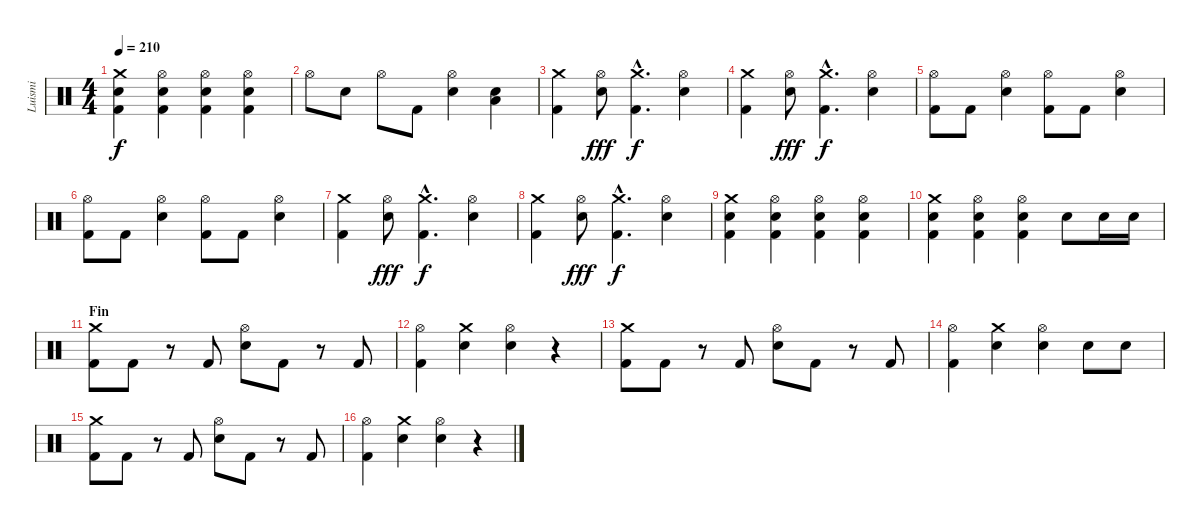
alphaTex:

\track ("Luismi" "Luismi") {instrument percussion}
\staff {score}
\articulation defaults
\ts (4 4)
\tempo 210
\clef neutral
\ks c
("Crash medium (hit)" "Snare (hit) 2" "Kick (hit) 2").4{dy f} ("Hi-Hat (open)" "Snare (hit) 2" "Kick (hit) 2").4 ("Hi-Hat (open)" "Snare (hit) 2" "Kick (hit) 2").4 ("Hi-Hat (open)" "Snare (hit) 2" "Kick (hit) 2").4 |
"Hi-Hat (open)".8 "Snare (hit) 2".8 "Hi-Hat (open)".8 "Kick (hit) 2".8 ("Hi-Hat (open)" "Snare (hit) 2").4 ("Snare (hit) 2" "Low Floor Tom (hit)").4 |
("Crash medium (hit)" "Kick (hit) 2").4 ("Hi-Hat (open)" "Snare (hit) 2").8{dy fff} ("Crash medium (hit)"{hac} "Kick (hit) 2"{hac}).4{d dy f} ("Hi-Hat (open)" "Snare (hit) 2").4 |
("Crash medium (hit)" "Kick (hit) 2").4 ("Hi-Hat (open)" "Snare (hit) 2").8{dy fff} ("Crash medium (hit)"{hac} "Kick (hit) 2"{hac}).4{d dy f} ("Hi-Hat (open)" "Snare (hit) 2").4 |
("Hi-Hat (open)" "Kick (hit) 2").8 "Kick (hit) 2".8 ("Hi-Hat (open)" "Snare (hit) 2").4 ("Hi-Hat (open)" "Kick (hit) 2").8 "Kick (hit) 2".8 ("Hi-Hat (open)" "Snare (hit) 2").4 |
("Hi-Hat (open)" "Kick (hit) 2").8 "Kick (hit) 2".8 ("Hi-Hat (open)" "Snare (hit) 2").4 ("Hi-Hat (open)" "Kick (hit) 2").8 "Kick (hit) 2".8 ("Hi-Hat (open)" "Snare (hit) 2").4 |
("Crash medium (hit)" "Kick (hit) 2").4 ("Hi-Hat (open)" "Snare (hit) 2").8{dy fff} ("Crash medium (hit)"{hac} "Kick (hit) 2"{hac}).4{d dy f} ("Hi-Hat (open)" "Snare (hit) 2").4 |
("Crash medium (hit)" "Kick (hit) 2").4 ("Hi-Hat (open)" "Snare (hit) 2").8{dy fff} ("Crash medium (hit)"{hac} "Kick (hit) 2"{hac}).4{d dy f} ("Hi-Hat (open)" "Snare (hit) 2").4 |
("Crash medium (hit)" "Snare (hit) 2" "Kick (hit) 2").4 ("Hi-Hat (open)" "Snare (hit) 2" "Kick (hit) 2").4 ("Hi-Hat (open)" "Snare (hit) 2" "Kick (hit) 2").4 ("Hi-Hat (open)" "Snare (hit) 2" "Kick (hit) 2").4 |
("Crash medium (hit)" "Snare (hit) 2" "Kick (hit) 2").4 ("Hi-Hat (open)" "Snare (hit) 2" "Kick (hit) 2").4 ("Hi-Hat (open)" "Snare (hit) 2" "Kick (hit) 2").4 "Snare (hit) 2".8 "Snare (hit) 2".16 "Snare (hit) 2".16 |
\section ("" "Fin")
("Crash medium (hit)" "Kick (hit) 2").8 "Kick (hit) 2".8 r.8 "Kick (hit) 2".8 ("Hi-Hat (open)" "Snare (hit) 2").8 "Kick (hit) 2".8 r.8 "Kick (hit) 2".8 |
("Hi-Hat (open)" "Kick (hit) 2").4 ("Crash medium (hit)" "Snare (hit) 2").4 ("Hi-Hat (open)" "Snare (hit) 2").4 r.4 |
("Crash medium (hit)" "Kick (hit) 2").8 "Kick (hit) 2".8 r.8 "Kick (hit) 2".8 ("Hi-Hat (open)" "Snare (hit) 2").8 "Kick (hit) 2".8 r.8 "Kick (hit) 2".8 |
("Hi-Hat (open)" "Kick (hit) 2").4 ("Crash medium (hit)" "Snare (hit) 2").4 ("Hi-Hat (open)" "Snare (hit) 2").4 "Snare (hit) 2".8 "Snare (hit) 2".8 |
("Crash medium (hit)" "Kick (hit) 2").8 "Kick (hit) 2".8 r.8 "Kick (hit) 2".8 ("Hi-Hat (open)" "Snare (hit) 2").8 "Kick (hit) 2".8 r.8 "Kick (hit) 2".8 |
("Hi-Hat (open)" "Kick (hit) 2").4 ("Crash medium (hit)" "Snare (hit) 2").4 ("Hi-Hat (open)" "Snare (hit) 2").4 r.4
